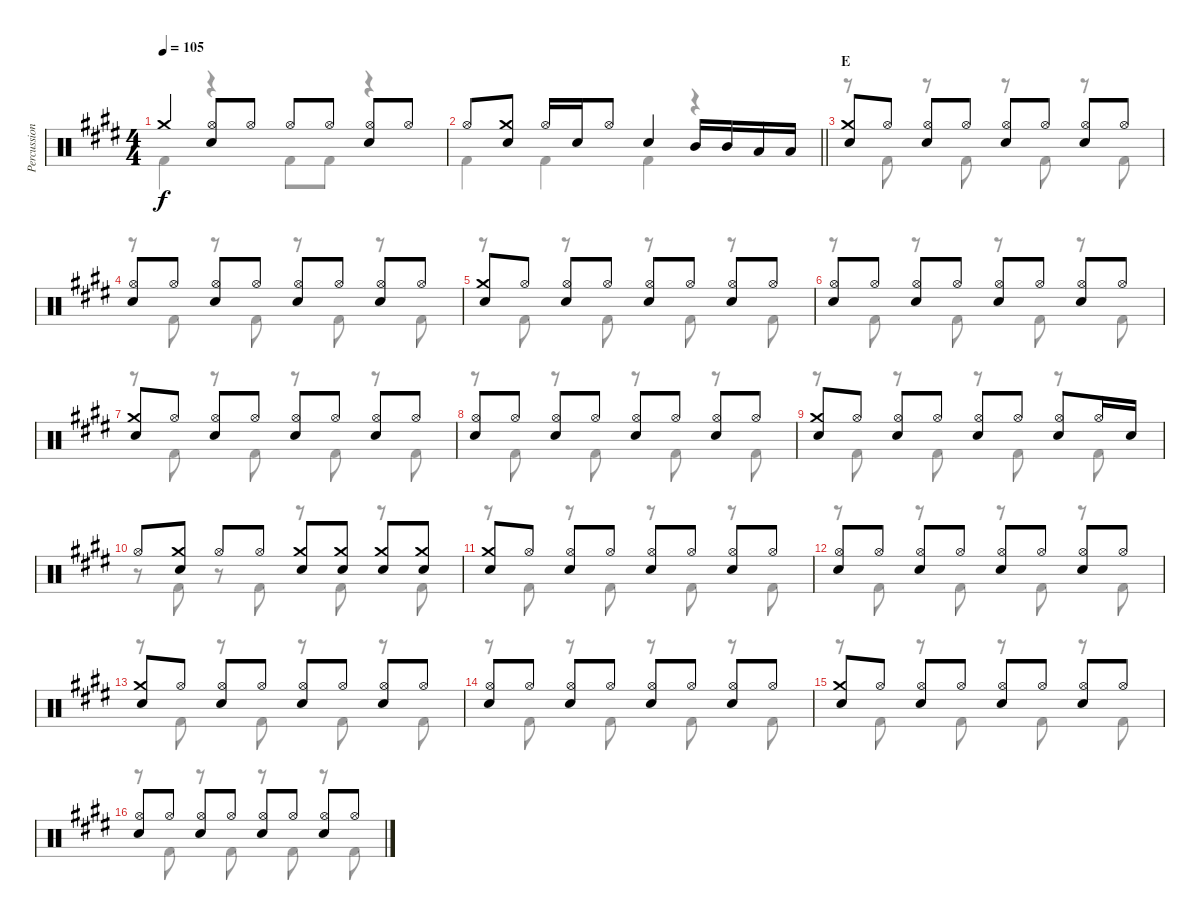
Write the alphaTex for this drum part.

\track ("Percussion" "Percussion") {instrument percussion}
\staff {score}
\articulation defaults
\voice
\ts (4 4)
\tempo 105
\clef neutral
\ks e "Crash medium (hit)".4{dy f}
("Hi-Hat (open)" "Snare (hit) 2").8 "Hi-Hat (open)".8 "Hi-Hat (open)".8 "Hi-Hat (open)".8 ("Hi-Hat (open)" "Snare (hit) 2").8 "Hi-Hat (open)".8 |
\barLineRight lightlight "Hi-Hat (open)".8
("Crash medium (hit)" "Snare (hit) 2").8 "Hi-Hat (open)".16 "Snare (hit) 2".16 "Hi-Hat (open)".8 "Snare (hit) 2".4 "Mid Tom (hit)".16 "Mid Tom (hit)".16 "Low Tom (hit)".16 "Low Tom (hit)".16 |
\section ("" "E")
("Crash medium (hit)" "Snare (hit) 2").8 "Hi-Hat (open)".8 ("Hi-Hat (open)" "Snare (hit) 2").8 "Hi-Hat (open)".8 ("Hi-Hat (open)" "Snare (hit) 2").8 "Hi-Hat (open)".8 ("Hi-Hat (open)" "Snare (hit) 2").8 "Hi-Hat (open)".8 |
("Hi-Hat (open)" "Snare (hit) 2").8 "Hi-Hat (open)".8 ("Hi-Hat (open)" "Snare (hit) 2").8 "Hi-Hat (open)".8 ("Hi-Hat (open)" "Snare (hit) 2").8 "Hi-Hat (open)".8 ("Hi-Hat (open)" "Snare (hit) 2").8 "Hi-Hat (open)".8 |
("Crash medium (hit)" "Snare (hit) 2").8 "Hi-Hat (open)".8 ("Hi-Hat (open)" "Snare (hit) 2").8 "Hi-Hat (open)".8 ("Hi-Hat (open)" "Snare (hit) 2").8 "Hi-Hat (open)".8 ("Hi-Hat (open)" "Snare (hit) 2").8 "Hi-Hat (open)".8 |
("Hi-Hat (open)" "Snare (hit) 2").8 "Hi-Hat (open)".8 ("Hi-Hat (open)" "Snare (hit) 2").8 "Hi-Hat (open)".8 ("Hi-Hat (open)" "Snare (hit) 2").8 "Hi-Hat (open)".8 ("Hi-Hat (open)" "Snare (hit) 2").8 "Hi-Hat (open)".8 |
("Crash medium (hit)" "Snare (hit) 2").8 "Hi-Hat (open)".8 ("Hi-Hat (open)" "Snare (hit) 2").8 "Hi-Hat (open)".8 ("Hi-Hat (open)" "Snare (hit) 2").8 "Hi-Hat (open)".8 ("Hi-Hat (open)" "Snare (hit) 2").8 "Hi-Hat (open)".8 |
("Hi-Hat (open)" "Snare (hit) 2").8 "Hi-Hat (open)".8 ("Hi-Hat (open)" "Snare (hit) 2").8 "Hi-Hat (open)".8 ("Hi-Hat (open)" "Snare (hit) 2").8 "Hi-Hat (open)".8 ("Hi-Hat (open)" "Snare (hit) 2").8 "Hi-Hat (open)".8 |
("Crash medium (hit)" "Snare (hit) 2").8 "Hi-Hat (open)".8 ("Hi-Hat (open)" "Snare (hit) 2").8 "Hi-Hat (open)".8 ("Hi-Hat (open)" "Snare (hit) 2").8 "Hi-Hat (open)".8 ("Hi-Hat (open)" "Snare (hit) 2").8 "Hi-Hat (open)".16 "Snare (hit) 2".16 |
"Hi-Hat (open)".8 ("Crash medium (hit)" "Snare (hit) 2").8 "Hi-Hat (open)".8 "Hi-Hat (open)".8 ("Crash medium (hit)" "Snare (hit) 2").8 ("Crash medium (hit)" "Snare (hit) 2").8 ("Crash medium (hit)" "Snare (hit) 2").8 ("Crash medium (hit)" "Snare (hit) 2").8 |
("Crash medium (hit)" "Snare (hit) 2").8 "Hi-Hat (open)".8 ("Hi-Hat (open)" "Snare (hit) 2").8 "Hi-Hat (open)".8 ("Hi-Hat (open)" "Snare (hit) 2").8 "Hi-Hat (open)".8 ("Hi-Hat (open)" "Snare (hit) 2").8 "Hi-Hat (open)".8 |
("Hi-Hat (open)" "Snare (hit) 2").8 "Hi-Hat (open)".8 ("Hi-Hat (open)" "Snare (hit) 2").8 "Hi-Hat (open)".8 ("Hi-Hat (open)" "Snare (hit) 2").8 "Hi-Hat (open)".8 ("Hi-Hat (open)" "Snare (hit) 2").8 "Hi-Hat (open)".8 |
("Crash medium (hit)" "Snare (hit) 2").8 "Hi-Hat (open)".8 ("Hi-Hat (open)" "Snare (hit) 2").8 "Hi-Hat (open)".8 ("Hi-Hat (open)" "Snare (hit) 2").8 "Hi-Hat (open)".8 ("Hi-Hat (open)" "Snare (hit) 2").8 "Hi-Hat (open)".8 |
("Hi-Hat (open)" "Snare (hit) 2").8 "Hi-Hat (open)".8 ("Hi-Hat (open)" "Snare (hit) 2").8 "Hi-Hat (open)".8 ("Hi-Hat (open)" "Snare (hit) 2").8 "Hi-Hat (open)".8 ("Hi-Hat (open)" "Snare (hit) 2").8 "Hi-Hat (open)".8 |
("Crash medium (hit)" "Snare (hit) 2").8 "Hi-Hat (open)".8 ("Hi-Hat (open)" "Snare (hit) 2").8 "Hi-Hat (open)".8 ("Hi-Hat (open)" "Snare (hit) 2").8 "Hi-Hat (open)".8 ("Hi-Hat (open)" "Snare (hit) 2").8 "Hi-Hat (open)".8 |
("Hi-Hat (open)" "Snare (hit) 2").8 "Hi-Hat (open)".8 ("Hi-Hat (open)" "Snare (hit) 2").8 "Hi-Hat (open)".8 ("Hi-Hat (open)" "Snare (hit) 2").8 "Hi-Hat (open)".8 ("Hi-Hat (open)" "Snare (hit) 2").8 "Hi-Hat (open)".8
\voice
\clef neutral
\ottava regular
\simile none
\ks e "Kick (hit) 2".4{dy f}
r.4 "Kick (hit) 2".8 "Kick (hit) 2".8 r.4 |
\barLineRight lightlight "Kick (hit) 2".4 "Kick (hit) 2".4 "Kick (hit) 2".4
r.4 |
r.8 "Kick (hit) 2".8 r.8 "Kick (hit) 2".8 r.8 "Kick (hit) 2".8 r.8 "Kick (hit) 2".8 |
r.8 "Kick (hit) 2".8 r.8 "Kick (hit) 2".8 r.8 "Kick (hit) 2".8 r.8 "Kick (hit) 2".8 |
r.8 "Kick (hit) 2".8 r.8 "Kick (hit) 2".8 r.8 "Kick (hit) 2".8 r.8 "Kick (hit) 2".8 |
r.8 "Kick (hit) 2".8 r.8 "Kick (hit) 2".8 r.8 "Kick (hit) 2".8 r.8 "Kick (hit) 2".8 |
r.8 "Kick (hit) 2".8 r.8 "Kick (hit) 2".8 r.8 "Kick (hit) 2".8 r.8 "Kick (hit) 2".8 |
r.8 "Kick (hit) 2".8 r.8 "Kick (hit) 2".8 r.8 "Kick (hit) 2".8 r.8 "Kick (hit) 2".8 |
r.8 "Kick (hit) 2".8 r.8 "Kick (hit) 2".8 r.8 "Kick (hit) 2".8 r.8 "Kick (hit) 2".8 |
r.8 "Kick (hit) 2".8 r.8 "Kick (hit) 2".8 r.8 "Kick (hit) 2".8 r.8 "Kick (hit) 2".8 |
r.8 "Kick (hit) 2".8 r.8 "Kick (hit) 2".8 r.8 "Kick (hit) 2".8 r.8 "Kick (hit) 2".8 |
r.8 "Kick (hit) 2".8 r.8 "Kick (hit) 2".8 r.8 "Kick (hit) 2".8 r.8 "Kick (hit) 2".8 |
r.8 "Kick (hit) 2".8 r.8 "Kick (hit) 2".8 r.8 "Kick (hit) 2".8 r.8 "Kick (hit) 2".8 |
r.8 "Kick (hit) 2".8 r.8 "Kick (hit) 2".8 r.8 "Kick (hit) 2".8 r.8 "Kick (hit) 2".8 |
r.8 "Kick (hit) 2".8 r.8 "Kick (hit) 2".8 r.8 "Kick (hit) 2".8 r.8 "Kick (hit) 2".8 |
r.8 "Kick (hit) 2".8 r.8 "Kick (hit) 2".8 r.8 "Kick (hit) 2".8 r.8 "Kick (hit) 2".8
